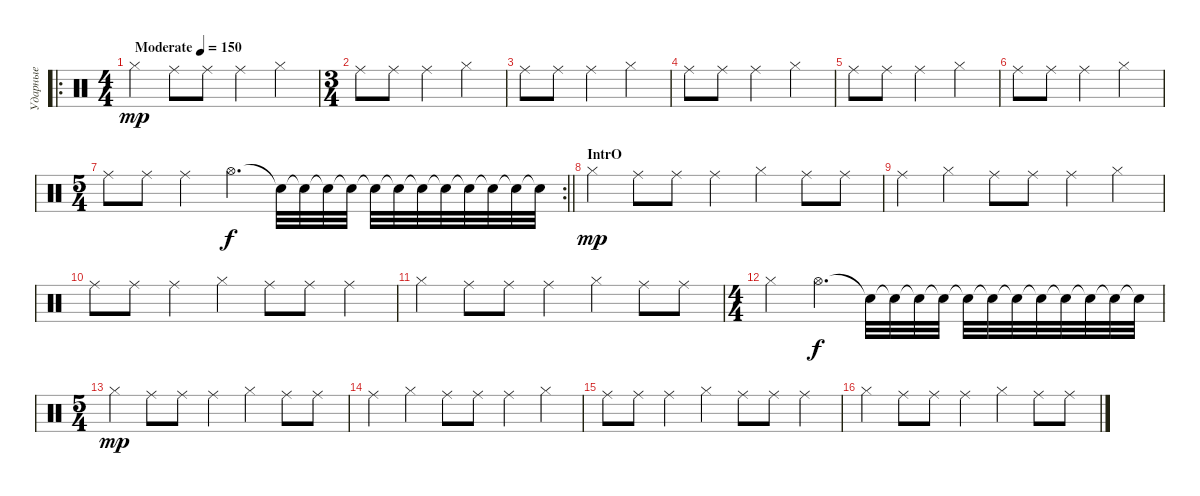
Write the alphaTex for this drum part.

\track ("Ударные" "Ударные") {instrument percussion}
\staff {score}
\articulation defaults
\ro
\ts (4 4)
\tempo (150 "Moderate")
\clef neutral
\ks c "Hi-Hat (closed)".4{dy mp} "Ride (middle)".8 "Ride (middle)".8 "Ride (middle)".4 "Hi-Hat (closed)".4
|
\ts (3 4)
"Ride (middle)".8 "Ride (middle)".8 "Ride (middle)".4 "Hi-Hat (closed)".4 |
"Ride (middle)".8 "Ride (middle)".8 "Ride (middle)".4 "Hi-Hat (closed)".4 |
"Ride (middle)".8 "Ride (middle)".8 "Ride (middle)".4 "Hi-Hat (closed)".4 |
"Ride (middle)".8 "Ride (middle)".8 "Ride (middle)".4 "Hi-Hat (closed)".4 |
"Ride (middle)".8 "Ride (middle)".8 "Ride (middle)".4 "Hi-Hat (closed)".4 |
\rc 2
\ts (5 4)
\barLineRight lightlight "Ride (middle)".8 "Ride (middle)".8 "Ride (middle)".4 "Hi-Hat (open)".4{d dy f} "Snare (hit)"{t}.32 "Snare (hit)"{t}.32 "Snare (hit)"{t}.32 "Snare (hit)"{t}.32 "Snare (hit)"{t}.32 "Snare (hit)"{t}.32 "Snare (hit)"{t}.32 "Snare (hit)"{t}.32 "Snare (hit)"{t}.32 "Snare (hit)"{t}.32 "Snare (hit)"{t}.32 "Snare (hit)"{t}.32
|
\section ("" "IntrO")
"Hi-Hat (closed)".4{dy mp} "Ride (middle)".8 "Ride (middle)".8 "Ride (middle)".4 "Hi-Hat (closed)".4 "Ride (middle)".8 "Ride (middle)".8 |
"Ride (middle)".4 "Hi-Hat (closed)".4 "Ride (middle)".8 "Ride (middle)".8 "Ride (middle)".4 "Hi-Hat (closed)".4 |
"Ride (middle)".8 "Ride (middle)".8 "Ride (middle)".4 "Hi-Hat (closed)".4 "Ride (middle)".8 "Ride (middle)".8 "Ride (middle)".4 |
"Hi-Hat (closed)".4 "Ride (middle)".8 "Ride (middle)".8 "Ride (middle)".4 "Hi-Hat (closed)".4 "Ride (middle)".8 "Ride (middle)".8 |
\ts (4 4)
"Hi-Hat (closed)".4 "Hi-Hat (open)".4{d dy f} "Snare (hit)"{t}.32 "Snare (hit)"{t}.32 "Snare (hit)"{t}.32 "Snare (hit)"{t}.32 "Snare (hit)"{t}.32 "Snare (hit)"{t}.32 "Snare (hit)"{t}.32 "Snare (hit)"{t}.32 "Snare (hit)"{t}.32 "Snare (hit)"{t}.32 "Snare (hit)"{t}.32 "Snare (hit)"{t}.32 |
\ts (5 4)
"Hi-Hat (closed)".4{dy mp} "Ride (middle)".8 "Ride (middle)".8 "Ride (middle)".4 "Hi-Hat (closed)".4 "Ride (middle)".8 "Ride (middle)".8 |
"Ride (middle)".4 "Hi-Hat (closed)".4 "Ride (middle)".8 "Ride (middle)".8 "Ride (middle)".4 "Hi-Hat (closed)".4 |
"Ride (middle)".8 "Ride (middle)".8 "Ride (middle)".4 "Hi-Hat (closed)".4 "Ride (middle)".8 "Ride (middle)".8 "Ride (middle)".4 |
"Hi-Hat (closed)".4 "Ride (middle)".8 "Ride (middle)".8 "Ride (middle)".4 "Hi-Hat (closed)".4 "Ride (middle)".8 "Ride (middle)".8
